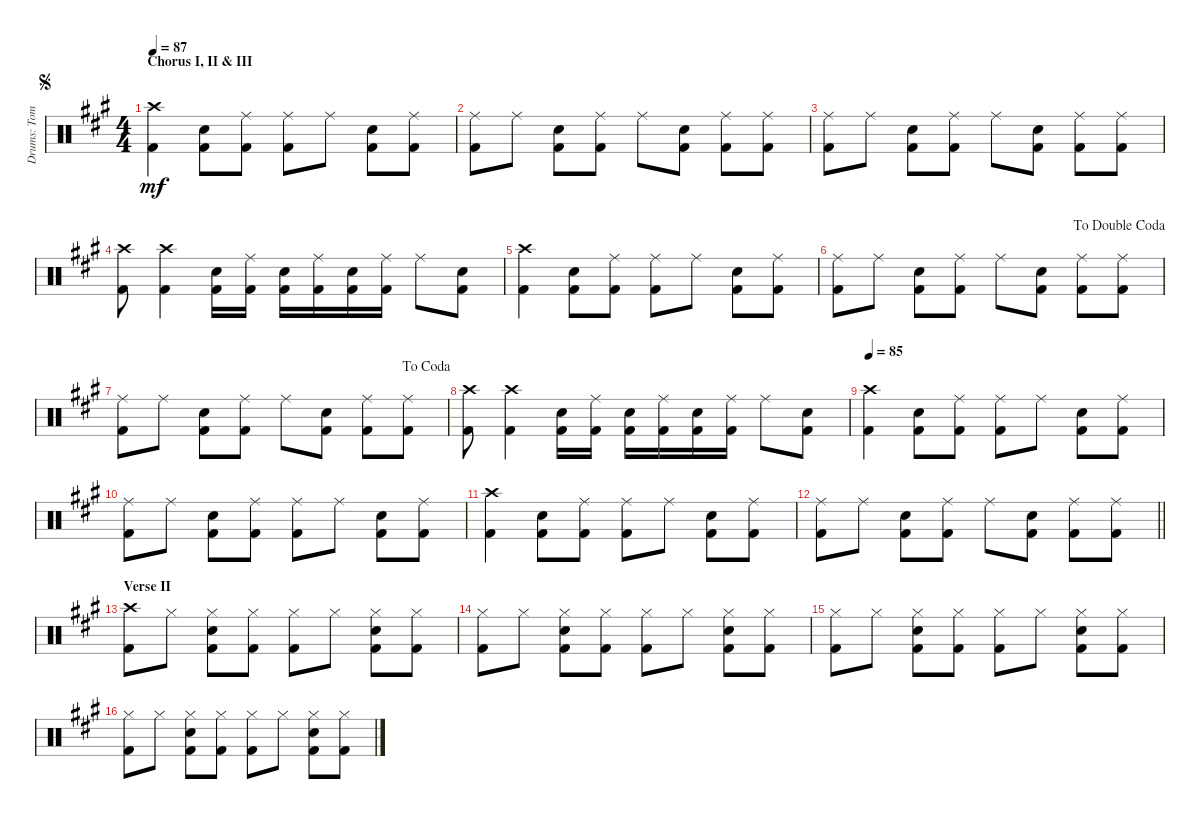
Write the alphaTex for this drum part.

\track ("Drums: Tom" "Drums: Tom") {instrument percussion}
\staff {score}
\articulation defaults
\ts (4 4)
\section ("" "Chorus I, II & III")
\jump segno
\tempo 87
\clef neutral
\ks a
("Crash high (hit)" "Kick (hit) 2").4{dy mf} ("Electric Snare (hit)" "Kick (hit) 2").8 ("Ride (middle)" "Kick (hit) 2").8 ("Ride (middle)" "Kick (hit) 2").8 "Ride (middle)".8 ("Electric Snare (hit)" "Kick (hit) 2").8 ("Ride (middle)" "Kick (hit) 2").8 |
("Ride (middle)" "Kick (hit) 2").8 "Ride (middle)".8 ("Electric Snare (hit)" "Kick (hit) 2").8 ("Ride (middle)" "Kick (hit) 2").8 "Ride (middle)".8 ("Electric Snare (hit)" "Kick (hit) 2").8 ("Ride (middle)" "Kick (hit) 2").8 ("Ride (middle)" "Kick (hit) 2").8 |
("Ride (middle)" "Kick (hit) 2").8 "Ride (middle)".8 ("Electric Snare (hit)" "Kick (hit) 2").8 ("Ride (middle)" "Kick (hit) 2").8 "Ride (middle)".8 ("Electric Snare (hit)" "Kick (hit) 2").8 ("Ride (middle)" "Kick (hit) 2").8 ("Ride (middle)" "Kick (hit) 2").8 |
("Crash high (hit)" "Kick (hit) 2").8 ("Crash high (hit)" "Kick (hit) 2").4 ("Electric Snare (hit)" "Kick (hit) 2").16 ("Ride (middle)" "Kick (hit) 2").16 ("Electric Snare (hit)" "Kick (hit) 2").16 ("Ride (middle)" "Kick (hit) 2").16 ("Electric Snare (hit)" "Kick (hit) 2").16 ("Ride (middle)" "Kick (hit) 2").16 "Ride (middle)".8 ("Electric Snare (hit)" "Kick (hit) 2").8 |
("Crash high (hit)" "Kick (hit) 2").4 ("Electric Snare (hit)" "Kick (hit) 2").8 ("Ride (middle)" "Kick (hit) 2").8 ("Ride (middle)" "Kick (hit) 2").8 "Ride (middle)".8 ("Electric Snare (hit)" "Kick (hit) 2").8 ("Ride (middle)" "Kick (hit) 2").8 |
\jump dadoublecoda
("Ride (middle)" "Kick (hit) 2").8 "Ride (middle)".8 ("Electric Snare (hit)" "Kick (hit) 2").8 ("Ride (middle)" "Kick (hit) 2").8 "Ride (middle)".8 ("Electric Snare (hit)" "Kick (hit) 2").8 ("Ride (middle)" "Kick (hit) 2").8 ("Ride (middle)" "Kick (hit) 2").8 |
\jump dacoda
("Ride (middle)" "Kick (hit) 2").8 "Ride (middle)".8 ("Electric Snare (hit)" "Kick (hit) 2").8 ("Ride (middle)" "Kick (hit) 2").8 "Ride (middle)".8 ("Electric Snare (hit)" "Kick (hit) 2").8 ("Ride (middle)" "Kick (hit) 2").8 ("Ride (middle)" "Kick (hit) 2").8 |
("Crash high (hit)" "Kick (hit) 2").8 ("Crash high (hit)" "Kick (hit) 2").4 ("Electric Snare (hit)" "Kick (hit) 2").16 ("Ride (middle)" "Kick (hit) 2").16 ("Electric Snare (hit)" "Kick (hit) 2").16 ("Ride (middle)" "Kick (hit) 2").16 ("Electric Snare (hit)" "Kick (hit) 2").16 ("Ride (middle)" "Kick (hit) 2").16 "Ride (middle)".8 ("Electric Snare (hit)" "Kick (hit) 2").8 |
\tempo 85
("Crash high (hit)" "Kick (hit) 2").4 ("Electric Snare (hit)" "Kick (hit) 2").8 ("Ride (middle)" "Kick (hit) 2").8 ("Ride (middle)" "Kick (hit) 2").8 "Ride (middle)".8 ("Electric Snare (hit)" "Kick (hit) 2").8 ("Ride (middle)" "Kick (hit) 2").8 |
("Ride (middle)" "Kick (hit) 2").8 "Ride (middle)".8 ("Electric Snare (hit)" "Kick (hit) 2").8 ("Ride (middle)" "Kick (hit) 2").8 ("Ride (middle)" "Kick (hit) 2").8 "Ride (middle)".8 ("Electric Snare (hit)" "Kick (hit) 2").8 ("Ride (middle)" "Kick (hit) 2").8 |
("Crash high (hit)" "Kick (hit) 2").4 ("Electric Snare (hit)" "Kick (hit) 2").8 ("Ride (middle)" "Kick (hit) 2").8 ("Ride (middle)" "Kick (hit) 2").8 "Ride (middle)".8 ("Electric Snare (hit)" "Kick (hit) 2").8 ("Ride (middle)" "Kick (hit) 2").8 |
\barLineRight lightlight
("Ride (middle)" "Kick (hit) 2").8 "Ride (middle)".8 ("Electric Snare (hit)" "Kick (hit) 2").8 ("Ride (middle)" "Kick (hit) 2").8 "Ride (middle)".8 ("Electric Snare (hit)" "Kick (hit) 2").8 ("Ride (middle)" "Kick (hit) 2").8 ("Ride (middle)" "Kick (hit) 2").8 |
\section ("" "Verse II")
("Crash high (hit)" "Kick (hit) 2").8 "Hi-Hat (closed)".8 ("Hi-Hat (closed)" "Electric Snare (hit)" "Kick (hit) 2").8 ("Hi-Hat (closed)" "Kick (hit) 2").8 ("Hi-Hat (closed)" "Kick (hit) 2").8 "Hi-Hat (closed)".8 ("Hi-Hat (closed)" "Electric Snare (hit)" "Kick (hit) 2").8 ("Hi-Hat (closed)" "Kick (hit) 2").8 |
("Hi-Hat (closed)" "Kick (hit) 2").8 "Hi-Hat (closed)".8 ("Hi-Hat (closed)" "Electric Snare (hit)" "Kick (hit) 2").8 ("Hi-Hat (closed)" "Kick (hit) 2").8 ("Hi-Hat (closed)" "Kick (hit) 2").8 "Hi-Hat (closed)".8 ("Hi-Hat (closed)" "Electric Snare (hit)" "Kick (hit) 2").8 ("Hi-Hat (closed)" "Kick (hit) 2").8 |
("Hi-Hat (closed)" "Kick (hit) 2").8 "Hi-Hat (closed)".8 ("Hi-Hat (closed)" "Electric Snare (hit)" "Kick (hit) 2").8 ("Hi-Hat (closed)" "Kick (hit) 2").8 ("Hi-Hat (closed)" "Kick (hit) 2").8 "Hi-Hat (closed)".8 ("Hi-Hat (closed)" "Electric Snare (hit)" "Kick (hit) 2").8 ("Hi-Hat (closed)" "Kick (hit) 2").8 |
("Hi-Hat (closed)" "Kick (hit) 2").8 "Hi-Hat (closed)".8 ("Hi-Hat (closed)" "Electric Snare (hit)" "Kick (hit) 2").8 ("Hi-Hat (closed)" "Kick (hit) 2").8 ("Hi-Hat (closed)" "Kick (hit) 2").8 "Hi-Hat (closed)".8 ("Hi-Hat (closed)" "Electric Snare (hit)" "Kick (hit) 2").8 ("Hi-Hat (closed)" "Kick (hit) 2").8
